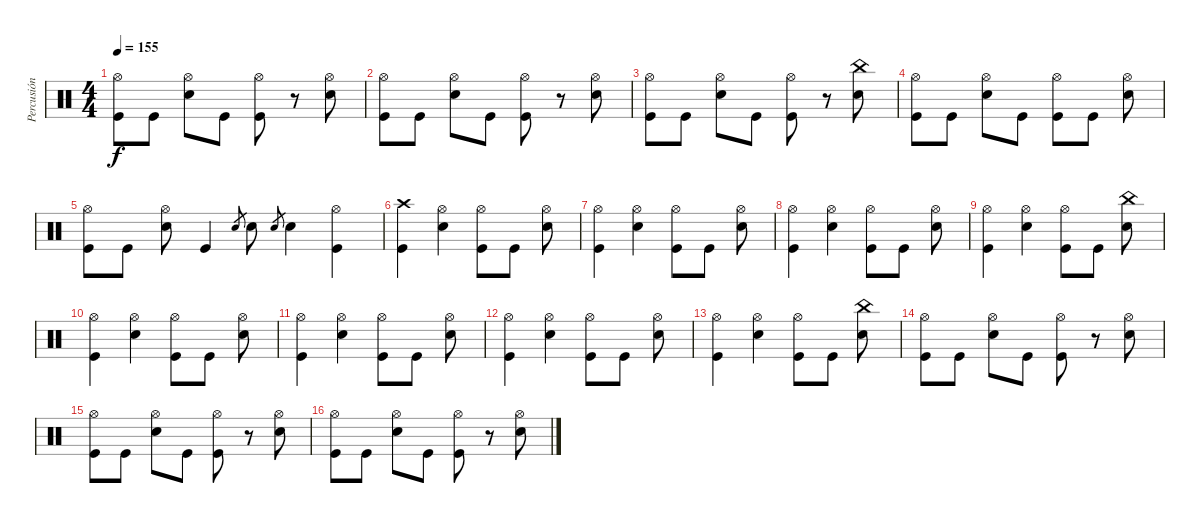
\track ("Percusión" "Percusión") {instrument percussion}
\staff {score}
\articulation defaults
\ts (4 4)
\tempo 155
\clef neutral
\ks c
("Kick (hit)" "Hi-Hat (open)").8{dy f} "Kick (hit)".8 ("Snare (hit) 2" "Hi-Hat (open)").8 "Kick (hit)".8 ("Kick (hit)" "Hi-Hat (open)").8 r.8 ("Snare (hit) 2" "Hi-Hat (open)").8 |
("Kick (hit)" "Hi-Hat (open)").8 "Kick (hit)".8 ("Snare (hit) 2" "Hi-Hat (open)").8 "Kick (hit)".8 ("Kick (hit)" "Hi-Hat (open)").8 r.8 ("Snare (hit) 2" "Hi-Hat (open)").8 |
("Kick (hit)" "Hi-Hat (open)").8 "Kick (hit)".8 ("Snare (hit) 2" "Hi-Hat (open)").8 "Kick (hit)".8 ("Kick (hit)" "Hi-Hat (open)").8 r.8 ("Snare (hit) 2" "China (hit)").8 |
("Kick (hit)" "Hi-Hat (open)").8 "Kick (hit)".8 ("Snare (hit) 2" "Hi-Hat (open)").8 "Kick (hit)".8 ("Kick (hit)" "Hi-Hat (open)").8 "Kick (hit)".8 ("Snare (hit) 2" "Hi-Hat (open)").8 |
("Kick (hit)" "Hi-Hat (open)").8 "Kick (hit)".8 ("Snare (hit) 2" "Hi-Hat (open)").8 "Kick (hit)".4 "Snare (hit) 2".8{gr} "Snare (hit) 2".8 "Snare (hit) 2".8{gr} "Snare (hit) 2".4 ("Kick (hit)" "Hi-Hat (open)").4 |
("Crash high (hit)" "Kick (hit)").4 ("Snare (hit) 2" "Hi-Hat (open)").4 ("Kick (hit)" "Hi-Hat (open)").8 "Kick (hit)".8 ("Snare (hit) 2" "Hi-Hat (open)").8 |
("Kick (hit)" "Hi-Hat (open)").4 ("Snare (hit) 2" "Hi-Hat (open)").4 ("Kick (hit)" "Hi-Hat (open)").8 "Kick (hit)".8 ("Snare (hit) 2" "Hi-Hat (open)").8 |
("Kick (hit)" "Hi-Hat (open)").4 ("Snare (hit) 2" "Hi-Hat (open)").4 ("Kick (hit)" "Hi-Hat (open)").8 "Kick (hit)".8 ("Snare (hit) 2" "Hi-Hat (open)").8 |
("Kick (hit)" "Hi-Hat (open)").4 ("Snare (hit) 2" "Hi-Hat (open)").4 ("Kick (hit)" "Hi-Hat (open)").8 "Kick (hit)".8 ("Snare (hit) 2" "China (hit)").8 |
("Kick (hit)" "Hi-Hat (open)").4 ("Snare (hit) 2" "Hi-Hat (open)").4 ("Kick (hit)" "Hi-Hat (open)").8 "Kick (hit)".8 ("Snare (hit) 2" "Hi-Hat (open)").8 |
("Kick (hit)" "Hi-Hat (open)").4 ("Snare (hit) 2" "Hi-Hat (open)").4 ("Kick (hit)" "Hi-Hat (open)").8 "Kick (hit)".8 ("Snare (hit) 2" "Hi-Hat (open)").8 |
("Kick (hit)" "Hi-Hat (open)").4 ("Snare (hit) 2" "Hi-Hat (open)").4 ("Kick (hit)" "Hi-Hat (open)").8 "Kick (hit)".8 ("Snare (hit) 2" "Hi-Hat (open)").8 |
("Kick (hit)" "Hi-Hat (open)").4 ("Snare (hit) 2" "Hi-Hat (open)").4 ("Kick (hit)" "Hi-Hat (open)").8 "Kick (hit)".8 ("Snare (hit) 2" "China (hit)").8 |
("Kick (hit)" "Hi-Hat (open)").8 "Kick (hit)".8 ("Snare (hit) 2" "Hi-Hat (open)").8 "Kick (hit)".8 ("Kick (hit)" "Hi-Hat (open)").8 r.8 ("Snare (hit) 2" "Hi-Hat (open)").8 |
("Kick (hit)" "Hi-Hat (open)").8 "Kick (hit)".8 ("Snare (hit) 2" "Hi-Hat (open)").8 "Kick (hit)".8 ("Kick (hit)" "Hi-Hat (open)").8 r.8 ("Snare (hit) 2" "Hi-Hat (open)").8 |
("Kick (hit)" "Hi-Hat (open)").8 "Kick (hit)".8 ("Snare (hit) 2" "Hi-Hat (open)").8 "Kick (hit)".8 ("Kick (hit)" "Hi-Hat (open)").8 r.8 ("Snare (hit) 2" "Hi-Hat (open)").8
